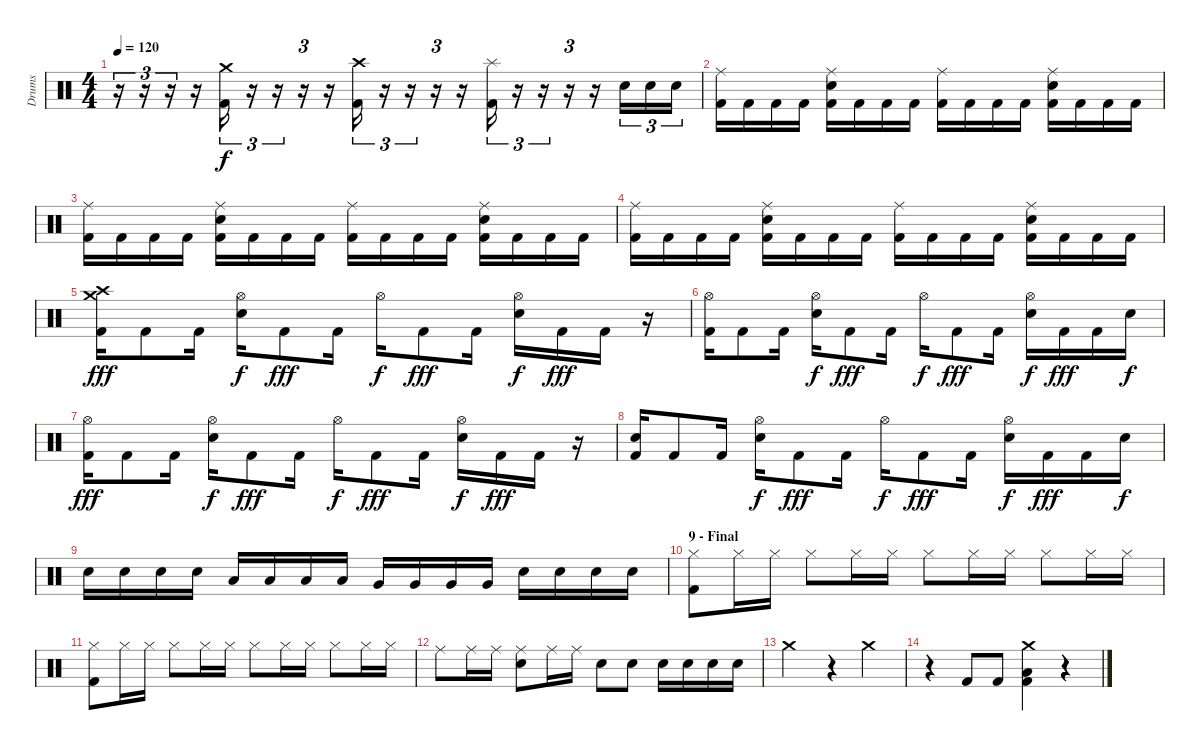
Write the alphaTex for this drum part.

\track ("Drums" "Drums") {instrument percussion}
\staff {score}
\articulation defaults
\ts (4 4)
\tempo 120
\clef neutral
\ks c
r.16{tu (3 2) dy f} r.16{tu (3 2)} r.16{tu (3 2)} r.16 ("Crash medium (hit)" "Kick (hit) 2").16{tu (3 2)} r.16{tu (3 2)} r.16{tu (3 2)} r.16{tu (3 2)} r.16 ("Crash high (hit)" "Kick (hit) 2").16{tu (3 2)} r.16{tu (3 2)} r.16{tu (3 2)} r.16{tu (3 2)} r.16 ("Splash (hit)" "Kick (hit) 2").16{tu (3 2)} r.16{tu (3 2)} r.16{tu (3 2)} r.16{tu (3 2)} r.16 "Electric Snare (hit)".16{tu (3 2)} "Electric Snare (hit)".16{tu (3 2)} "Electric Snare (hit)".16{tu (3 2)} |
("Ride (middle)" "Kick (hit) 2").16 "Kick (hit) 2".16 "Kick (hit) 2".16 "Kick (hit) 2".16 ("Ride (middle)" "Electric Snare (hit)" "Kick (hit) 2").16 "Kick (hit) 2".16 "Kick (hit) 2".16 "Kick (hit) 2".16 ("Ride (middle)" "Kick (hit) 2").16 "Kick (hit) 2".16 "Kick (hit) 2".16 "Kick (hit) 2".16 ("Ride (middle)" "Electric Snare (hit)" "Kick (hit) 2").16 "Kick (hit) 2".16 "Kick (hit) 2".16 "Kick (hit) 2".16 |
("Ride (middle)" "Kick (hit) 2").16 "Kick (hit) 2".16 "Kick (hit) 2".16 "Kick (hit) 2".16 ("Ride (middle)" "Electric Snare (hit)" "Kick (hit) 2").16 "Kick (hit) 2".16 "Kick (hit) 2".16 "Kick (hit) 2".16 ("Ride (middle)" "Kick (hit) 2").16 "Kick (hit) 2".16 "Kick (hit) 2".16 "Kick (hit) 2".16 ("Ride (middle)" "Electric Snare (hit)" "Kick (hit) 2").16 "Kick (hit) 2".16 "Kick (hit) 2".16 "Kick (hit) 2".16 |
("Ride (middle)" "Kick (hit) 2").16 "Kick (hit) 2".16 "Kick (hit) 2".16 "Kick (hit) 2".16 ("Ride (middle)" "Electric Snare (hit)" "Kick (hit) 2").16 "Kick (hit) 2".16 "Kick (hit) 2".16 "Kick (hit) 2".16 ("Ride (middle)" "Kick (hit) 2").16 "Kick (hit) 2".16 "Kick (hit) 2".16 "Kick (hit) 2".16 ("Ride (middle)" "Electric Snare (hit)" "Kick (hit) 2").16 "Kick (hit) 2".16 "Kick (hit) 2".16 "Kick (hit) 2".16 |
("Crash high (hit)" "Crash medium (hit)" "Kick (hit) 2").16{dy fff} "Kick (hit) 2".8 "Kick (hit) 2".16 ("Hi-Hat (open)" "Electric Snare (hit)").16{dy f} "Kick (hit) 2".8{dy fff} "Kick (hit) 2".16 "Hi-Hat (open)".16{dy f} "Kick (hit) 2".8{dy fff} "Kick (hit) 2".16 ("Hi-Hat (open)" "Electric Snare (hit)").16{dy f} "Kick (hit) 2".16{dy fff} "Kick (hit) 2".16 r.16 |
("Hi-Hat (open)" "Kick (hit) 2").16 "Kick (hit) 2".8 "Kick (hit) 2".16 ("Hi-Hat (open)" "Electric Snare (hit)").16{dy f} "Kick (hit) 2".8{dy fff} "Kick (hit) 2".16 "Hi-Hat (open)".16{dy f} "Kick (hit) 2".8{dy fff} "Kick (hit) 2".16 ("Hi-Hat (open)" "Electric Snare (hit)").16{dy f} "Kick (hit) 2".16{dy fff} "Kick (hit) 2".16 "Electric Snare (hit)".16{dy f} |
("Hi-Hat (open)" "Kick (hit) 2").16{dy fff} "Kick (hit) 2".8 "Kick (hit) 2".16 ("Hi-Hat (open)" "Electric Snare (hit)").16{dy f} "Kick (hit) 2".8{dy fff} "Kick (hit) 2".16 "Hi-Hat (open)".16{dy f} "Kick (hit) 2".8{dy fff} "Kick (hit) 2".16 ("Hi-Hat (open)" "Electric Snare (hit)").16{dy f} "Kick (hit) 2".16{dy fff} "Kick (hit) 2".16 r.16 |
("Snare (hit)" "Kick (hit) 2").16 "Kick (hit) 2".8 "Kick (hit) 2".16 ("Hi-Hat (open)" "Electric Snare (hit)").16{dy f} "Kick (hit) 2".8{dy fff} "Kick (hit) 2".16 "Hi-Hat (open)".16{dy f} "Kick (hit) 2".8{dy fff} "Kick (hit) 2".16 ("Hi-Hat (open)" "Electric Snare (hit)").16{dy f} "Kick (hit) 2".16{dy fff} "Kick (hit) 2".16 "Electric Snare (hit)".16{dy f} |
"Electric Snare (hit)".16 "Electric Snare (hit)".16 "Electric Snare (hit)".16 "Electric Snare (hit)".16 "Low Tom (hit)".16 "Low Tom (hit)".16 "Low Tom (hit)".16 "Low Tom (hit)".16 "Very Low Tom (hit)".16 "Very Low Tom (hit)".16 "Very Low Tom (hit)".16 "Very Low Tom (hit)".16 "Electric Snare (hit)".16 "Electric Snare (hit)".16 "Electric Snare (hit)".16 "Electric Snare (hit)".16 |
\section ("" "9 - Final")
("Hi-Hat (closed)" "Kick (hit) 2").8 "Hi-Hat (closed)".16 "Hi-Hat (closed)".16 "Hi-Hat (closed)".8 "Hi-Hat (closed)".16 "Hi-Hat (closed)".16 "Hi-Hat (closed)".8 "Hi-Hat (closed)".16 "Hi-Hat (closed)".16 "Hi-Hat (closed)".8 "Hi-Hat (closed)".16 "Hi-Hat (closed)".16 |
("Hi-Hat (closed)" "Kick (hit) 2").8 "Hi-Hat (closed)".16 "Hi-Hat (closed)".16 "Hi-Hat (closed)".8 "Hi-Hat (closed)".16 "Hi-Hat (closed)".16 "Hi-Hat (closed)".8 "Hi-Hat (closed)".16 "Hi-Hat (closed)".16 "Hi-Hat (closed)".8 "Hi-Hat (closed)".16 "Hi-Hat (closed)".16 |
"Ride (middle)".8 "Ride (middle)".16 "Ride (middle)".16 ("Ride (middle)" "Electric Snare (hit)").8 "Ride (middle)".16 "Ride (middle)".16 "Electric Snare (hit)".8 "Electric Snare (hit)".8 "Electric Snare (hit)".16 "Electric Snare (hit)".16 "Electric Snare (hit)".16 "Electric Snare (hit)".16 |
"Crash medium (hit)".2 r.4 "Crash medium (hit)".4 |
r.4 "Kick (hit) 2".8 "Kick (hit) 2".8 ("Crash medium (hit)" "Low Tom (hit)" "Kick (hit) 2").4 r.4
